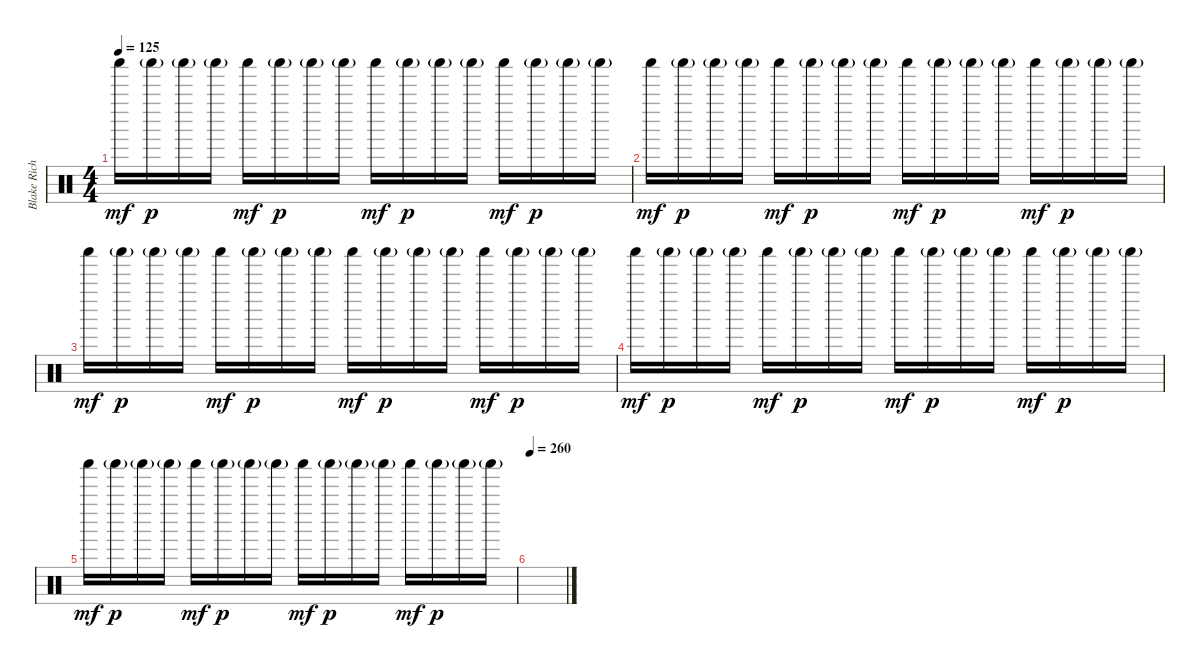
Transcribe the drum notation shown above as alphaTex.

\track ("Blake Richardson - Shaker" "Blake Rich") {instrument percussion}
\staff {score}
\articulation defaults
\ts (4 4)
\tempo 125
\clef neutral
\ks c "Shaker (hit)".16{dy mf} "Shaker (hit)"{g}.16{dy p} "Shaker (hit)"{g}.16 "Shaker (hit)"{g}.16 "Shaker (hit)".16{dy mf} "Shaker (hit)"{g}.16{dy p} "Shaker (hit)"{g}.16 "Shaker (hit)"{g}.16 "Shaker (hit)".16{dy mf} "Shaker (hit)"{g}.16{dy p} "Shaker (hit)"{g}.16 "Shaker (hit)"{g}.16 "Shaker (hit)".16{dy mf} "Shaker (hit)"{g}.16{dy p} "Shaker (hit)"{g}.16 "Shaker (hit)"{g}.16
|
"Shaker (hit)".16{dy mf} "Shaker (hit)"{g}.16{dy p} "Shaker (hit)"{g}.16 "Shaker (hit)"{g}.16 "Shaker (hit)".16{dy mf} "Shaker (hit)"{g}.16{dy p} "Shaker (hit)"{g}.16 "Shaker (hit)"{g}.16 "Shaker (hit)".16{dy mf} "Shaker (hit)"{g}.16{dy p} "Shaker (hit)"{g}.16 "Shaker (hit)"{g}.16 "Shaker (hit)".16{dy mf} "Shaker (hit)"{g}.16{dy p} "Shaker (hit)"{g}.16 "Shaker (hit)"{g}.16 |
"Shaker (hit)".16{dy mf} "Shaker (hit)"{g}.16{dy p} "Shaker (hit)"{g}.16 "Shaker (hit)"{g}.16 "Shaker (hit)".16{dy mf} "Shaker (hit)"{g}.16{dy p} "Shaker (hit)"{g}.16 "Shaker (hit)"{g}.16 "Shaker (hit)".16{dy mf} "Shaker (hit)"{g}.16{dy p} "Shaker (hit)"{g}.16 "Shaker (hit)"{g}.16 "Shaker (hit)".16{dy mf} "Shaker (hit)"{g}.16{dy p} "Shaker (hit)"{g}.16 "Shaker (hit)"{g}.16 |
"Shaker (hit)".16{dy mf} "Shaker (hit)"{g}.16{dy p} "Shaker (hit)"{g}.16 "Shaker (hit)"{g}.16 "Shaker (hit)".16{dy mf} "Shaker (hit)"{g}.16{dy p} "Shaker (hit)"{g}.16 "Shaker (hit)"{g}.16 "Shaker (hit)".16{dy mf} "Shaker (hit)"{g}.16{dy p} "Shaker (hit)"{g}.16 "Shaker (hit)"{g}.16 "Shaker (hit)".16{dy mf} "Shaker (hit)"{g}.16{dy p} "Shaker (hit)"{g}.16 "Shaker (hit)"{g}.16 |
"Shaker (hit)".16{dy mf} "Shaker (hit)"{g}.16{dy p} "Shaker (hit)"{g}.16 "Shaker (hit)"{g}.16 "Shaker (hit)".16{dy mf} "Shaker (hit)"{g}.16{dy p} "Shaker (hit)"{g}.16 "Shaker (hit)"{g}.16 "Shaker (hit)".16{dy mf} "Shaker (hit)"{g}.16{dy p} "Shaker (hit)"{g}.16 "Shaker (hit)"{g}.16 "Shaker (hit)".16{dy mf} "Shaker (hit)"{g}.16{dy p} "Shaker (hit)"{g}.16 "Shaker (hit)"{g}.16 |
\tempo 260
